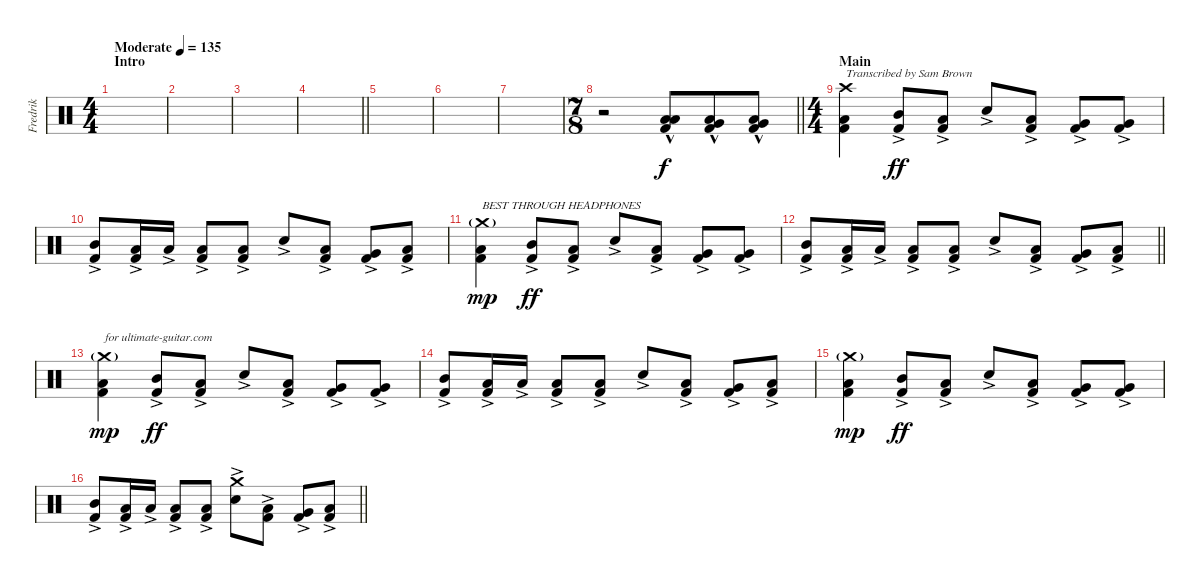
\track ("Fredrik" "Fredrik") {instrument percussion}
\staff {score}
\articulation defaults
\ts (4 4)
\section ("" "Intro")
\tempo (135 "Moderate")
\clef neutral
\ks c
|
|
|
\barLineRight lightlight
|
\section ("" "")
|
|
|
\ts (7 8)
\barLineRight lightlight
r.2 ("Kick (hit) 2" "Low Tom (hit)"{hac} "Low Floor Tom (hit)").8 ("Kick (hit) 2" "Very Low Tom (hit)"{hac} "Low Floor Tom (hit)").8 ("Kick (hit) 2" "Very Low Tom (hit)"{hac} "Low Floor Tom (hit)").8 |
\ts (4 4)
\section ("" "Main")
("Kick (hit) 2" "Low Floor Tom (hit)" "Crash high (hit)").4{txt "Transcribed by Sam Brown" dy f} ("Kick (hit) 2" "Mid Tom (hit)"{ac}).8{dy ff} ("Kick (hit) 2" "Low Tom (hit)"{ac}).8 "Snare (hit) 2"{ac}.8 ("Kick (hit) 2" "Low Tom (hit)"{ac}).8 ("Kick (hit) 2" "Very Low Tom (hit)"{ac}).8 ("Kick (hit) 2" "Very Low Tom (hit)"{ac}).8 |
("Kick (hit) 2" "Mid Tom (hit)"{ac}).8 ("Kick (hit) 2" "Low Tom (hit)"{ac}).16 "Low Tom (hit)"{ac}.16 ("Kick (hit) 2" "Low Tom (hit)"{ac}).8 ("Kick (hit) 2" "Low Tom (hit)"{ac}).8 "Snare (hit) 2"{ac}.8 ("Kick (hit) 2" "Low Tom (hit)"{ac}).8 ("Kick (hit) 2" "Very Low Tom (hit)"{ac}).8 ("Kick (hit) 2" "Low Floor Tom (hit)"{ac}).8 |
("Kick (hit) 2" "Low Floor Tom (hit)" "Crash medium (hit)"{g}).4{txt "BEST THROUGH HEADPHONES" dy mp} ("Kick (hit) 2" "Mid Tom (hit)"{ac}).8{dy ff} ("Kick (hit) 2" "Low Tom (hit)"{ac}).8 "Snare (hit) 2"{ac}.8 ("Kick (hit) 2" "Low Tom (hit)"{ac}).8 ("Kick (hit) 2" "Very Low Tom (hit)"{ac}).8 ("Kick (hit) 2" "Very Low Tom (hit)"{ac}).8 |
\barLineRight lightlight
("Kick (hit) 2" "Mid Tom (hit)"{ac}).8 ("Kick (hit) 2" "Low Tom (hit)"{ac}).16 "Low Tom (hit)"{ac}.16 ("Kick (hit) 2" "Low Tom (hit)"{ac}).8 ("Kick (hit) 2" "Low Tom (hit)"{ac}).8 "Snare (hit) 2"{ac}.8 ("Kick (hit) 2" "Low Tom (hit)"{ac}).8 ("Kick (hit) 2" "Very Low Tom (hit)"{ac}).8 ("Kick (hit) 2" "Low Floor Tom (hit)"{ac}).8 |
\section ("" "")
("Kick (hit) 2" "Low Floor Tom (hit)" "Crash medium (hit)"{g}).4{txt "for ultimate-guitar.com" dy mp} ("Kick (hit) 2" "Mid Tom (hit)"{ac}).8{dy ff} ("Kick (hit) 2" "Low Tom (hit)"{ac}).8 "Snare (hit) 2"{ac}.8 ("Kick (hit) 2" "Low Tom (hit)"{ac}).8 ("Kick (hit) 2" "Very Low Tom (hit)"{ac}).8 ("Kick (hit) 2" "Very Low Tom (hit)"{ac}).8 |
("Kick (hit) 2" "Mid Tom (hit)"{ac}).8 ("Kick (hit) 2" "Low Tom (hit)"{ac}).16 "Low Tom (hit)"{ac}.16 ("Kick (hit) 2" "Low Tom (hit)"{ac}).8 ("Kick (hit) 2" "Low Tom (hit)"{ac}).8 "Snare (hit) 2"{ac}.8 ("Kick (hit) 2" "Low Tom (hit)"{ac}).8 ("Kick (hit) 2" "Very Low Tom (hit)"{ac}).8 ("Kick (hit) 2" "Low Floor Tom (hit)"{ac}).8 |
("Kick (hit) 2" "Low Floor Tom (hit)" "Crash medium (hit)"{g}).4{dy mp} ("Kick (hit) 2" "Mid Tom (hit)"{ac}).8{dy ff} ("Kick (hit) 2" "Low Tom (hit)"{ac}).8 "Snare (hit) 2"{ac}.8 ("Kick (hit) 2" "Low Tom (hit)"{ac}).8 ("Kick (hit) 2" "Very Low Tom (hit)"{ac}).8 ("Kick (hit) 2" "Very Low Tom (hit)"{ac}).8 |
\barLineRight lightlight
("Kick (hit) 2" "Mid Tom (hit)"{ac}).8 ("Kick (hit) 2" "Low Tom (hit)"{ac}).16 "Low Tom (hit)"{ac}.16 ("Kick (hit) 2" "Low Tom (hit)"{ac}).8 ("Kick (hit) 2" "Low Tom (hit)"{ac}).8 ("Snare (hit) 2"{ac} "Crash medium (hit)").8 ("Kick (hit) 2" "Low Tom (hit)"{ac}).8 ("Kick (hit) 2" "Very Low Tom (hit)"{ac}).8 ("Kick (hit) 2" "Low Floor Tom (hit)"{ac}).8
